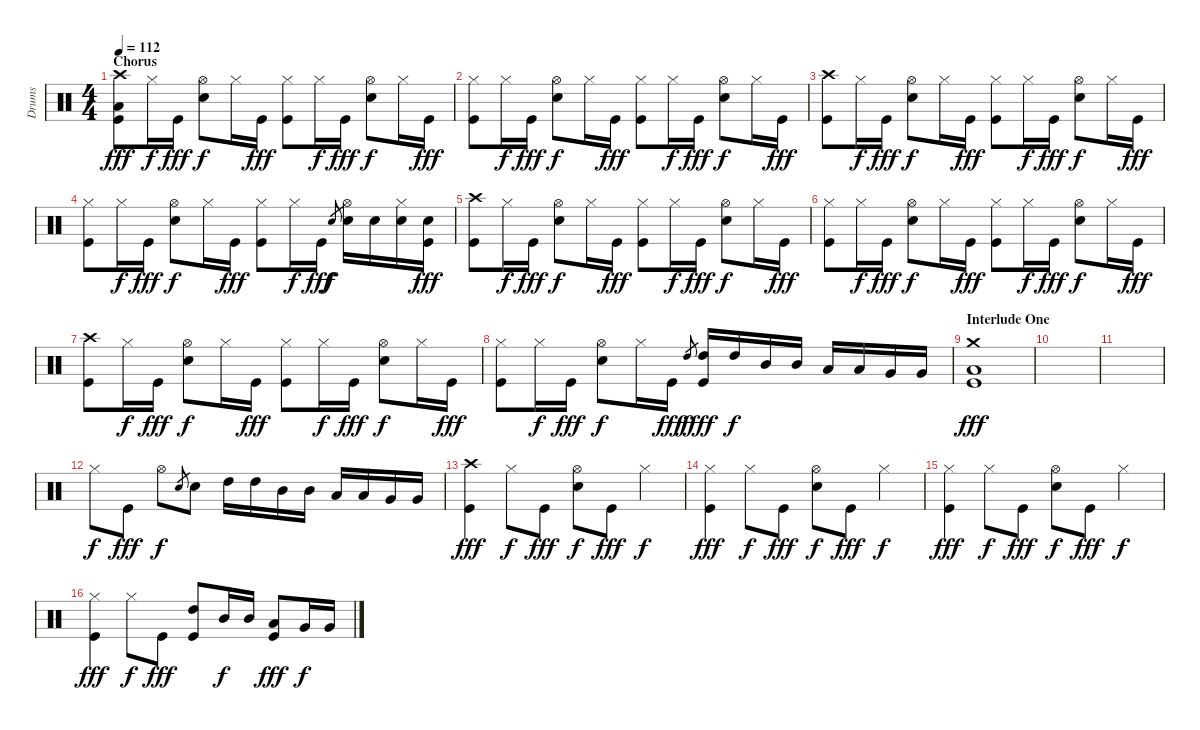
\track ("Drums" "Drums") {instrument percussion}
\staff {score}
\articulation defaults
\ts (4 4)
\section ("" "Chorus")
\tempo 112
\clef neutral
\ks c
("Crash high (hit)" "Low Floor Tom (hit)" "Kick (hit)").8{dy fff} "Hi-Hat (closed)".16{dy f} "Kick (hit)".16{dy fff} ("Hi-Hat (open)" "Snare (hit) 2").8{dy f} "Hi-Hat (closed)".16 "Kick (hit)".16{dy fff} ("Hi-Hat (closed)" "Kick (hit)").8 "Hi-Hat (closed)".16{dy f} "Kick (hit)".16{dy fff} ("Hi-Hat (open)" "Snare (hit) 2").8{dy f} "Hi-Hat (closed)".16 "Kick (hit)".16{dy fff} |
("Hi-Hat (closed)" "Kick (hit)").8 "Hi-Hat (closed)".16{dy f} "Kick (hit)".16{dy fff} ("Hi-Hat (open)" "Snare (hit) 2").8{dy f} "Hi-Hat (closed)".16 "Kick (hit)".16{dy fff} ("Hi-Hat (closed)" "Kick (hit)").8 "Hi-Hat (closed)".16{dy f} "Kick (hit)".16{dy fff} ("Hi-Hat (open)" "Snare (hit) 2").8{dy f} "Hi-Hat (closed)".16 "Kick (hit)".16{dy fff} |
("Crash high (hit)" "Kick (hit)").8 "Hi-Hat (closed)".16{dy f} "Kick (hit)".16{dy fff} ("Hi-Hat (open)" "Snare (hit) 2").8{dy f} "Hi-Hat (closed)".16 "Kick (hit)".16{dy fff} ("Hi-Hat (closed)" "Kick (hit)").8 "Hi-Hat (closed)".16{dy f} "Kick (hit)".16{dy fff} ("Hi-Hat (open)" "Snare (hit) 2").8{dy f} "Hi-Hat (closed)".16 "Kick (hit)".16{dy fff} |
("Hi-Hat (closed)" "Kick (hit)").8 "Hi-Hat (closed)".16{dy f} "Kick (hit)".16{dy fff} ("Hi-Hat (open)" "Snare (hit) 2").8{dy f} "Hi-Hat (closed)".16 "Kick (hit)".16{dy fff} ("Hi-Hat (closed)" "Kick (hit)").8 "Hi-Hat (closed)".16{dy f} "Kick (hit)".16{dy fff} "Snare (hit) 2".8{gr dy f} ("Hi-Hat (open)" "Snare (hit) 2").16 "Snare (hit) 2".16 ("Hi-Hat (closed)" "Snare (hit) 2").16 ("Snare (hit) 2" "Kick (hit)").16{dy fff} |
("Crash high (hit)" "Kick (hit)").8 "Hi-Hat (closed)".16{dy f} "Kick (hit)".16{dy fff} ("Hi-Hat (open)" "Snare (hit) 2").8{dy f} "Hi-Hat (closed)".16 "Kick (hit)".16{dy fff} ("Hi-Hat (closed)" "Kick (hit)").8 "Hi-Hat (closed)".16{dy f} "Kick (hit)".16{dy fff} ("Hi-Hat (open)" "Snare (hit) 2").8{dy f} "Hi-Hat (closed)".16 "Kick (hit)".16{dy fff} |
("Hi-Hat (closed)" "Kick (hit)").8 "Hi-Hat (closed)".16{dy f} "Kick (hit)".16{dy fff} ("Hi-Hat (open)" "Snare (hit) 2").8{dy f} "Hi-Hat (closed)".16 "Kick (hit)".16{dy fff} ("Hi-Hat (closed)" "Kick (hit)").8 "Hi-Hat (closed)".16{dy f} "Kick (hit)".16{dy fff} ("Hi-Hat (open)" "Snare (hit) 2").8{dy f} "Hi-Hat (closed)".16 "Kick (hit)".16{dy fff} |
("Crash high (hit)" "Kick (hit)").8 "Hi-Hat (closed)".16{dy f} "Kick (hit)".16{dy fff} ("Hi-Hat (open)" "Snare (hit) 2").8{dy f} "Hi-Hat (closed)".16 "Kick (hit)".16{dy fff} ("Hi-Hat (closed)" "Kick (hit)").8 "Hi-Hat (closed)".16{dy f} "Kick (hit)".16{dy fff} ("Hi-Hat (open)" "Snare (hit) 2").8{dy f} "Hi-Hat (closed)".16 "Kick (hit)".16{dy fff} |
("Hi-Hat (closed)" "Kick (hit)").8 "Hi-Hat (closed)".16{dy f} "Kick (hit)".16{dy fff} ("Hi-Hat (open)" "Snare (hit) 2").8{dy f} "Hi-Hat (closed)".16 "Kick (hit)".16{dy fff} "High Tom (hit)".8{gr dy f} ("High Tom (hit)" "Kick (hit)").16{dy fff} "High Tom (hit)".16{dy f} "Mid Tom (hit)".16 "Mid Tom (hit)".16 "Low Tom (hit)".16 "Low Tom (hit)".16 "Very Low Tom (hit)".16 "Very Low Tom (hit)".16 |
\section ("" "Interlude One")
("Crash medium (hit)" "Low Floor Tom (hit)" "Kick (hit)").1{dy fff} |
|
|
"Hi-Hat (closed)".8{dy f} "Kick (hit)".8{dy fff} "Hi-Hat (open)".8{dy f} "Snare (hit) 2".8{gr} "Snare (hit) 2".8 "High Tom (hit)".16 "High Tom (hit)".16 "Mid Tom (hit)".16 "Mid Tom (hit)".16 "Low Tom (hit)".16 "Low Tom (hit)".16 "Very Low Tom (hit)".16 "Very Low Tom (hit)".16 |
("Crash high (hit)" "Kick (hit)").4{dy fff} "Hi-Hat (closed)".8{dy f} "Kick (hit)".8{dy fff} ("Hi-Hat (open)" "Snare (hit) 2").8{dy f} "Kick (hit)".8{dy fff} "Hi-Hat (closed)".4{dy f} |
("Hi-Hat (closed)" "Kick (hit)").4{dy fff} "Hi-Hat (closed)".8{dy f} "Kick (hit)".8{dy fff} ("Hi-Hat (open)" "Snare (hit) 2").8{dy f} "Kick (hit)".8{dy fff} "Hi-Hat (closed)".4{dy f} |
("Hi-Hat (closed)" "Kick (hit)").4{dy fff} "Hi-Hat (closed)".8{dy f} "Kick (hit)".8{dy fff} ("Hi-Hat (open)" "Snare (hit) 2").8{dy f} "Kick (hit)".8{dy fff} "Hi-Hat (closed)".4{dy f} |
("Hi-Hat (closed)" "Kick (hit)").4{dy fff} "Hi-Hat (closed)".8{dy f} "Kick (hit)".8{dy fff} ("High Tom (hit)" "Kick (hit)").8 "Mid Tom (hit)".16{dy f} "Mid Tom (hit)".16 ("Low Tom (hit)" "Kick (hit)").8{dy fff} "Very Low Tom (hit)".16{dy f} "Very Low Tom (hit)".16
